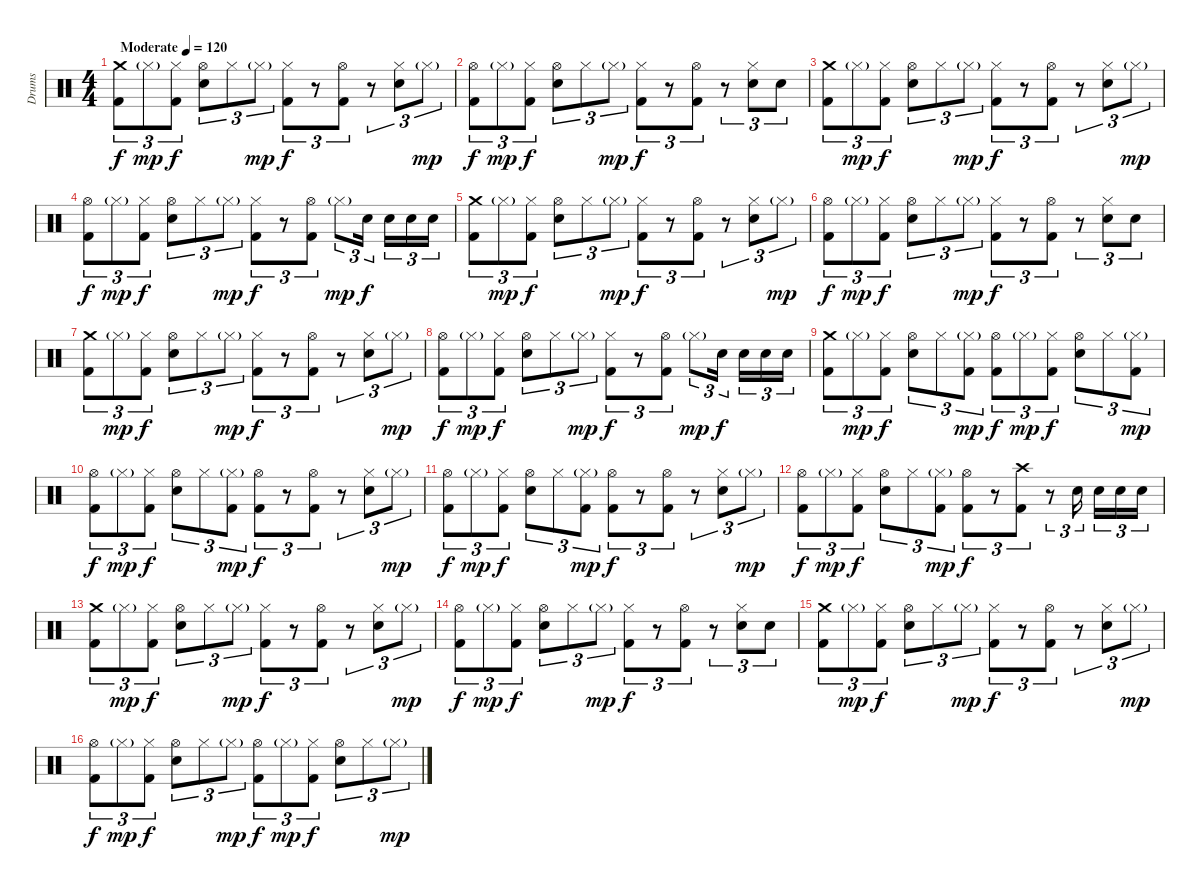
\track ("Drums" "Drums") {instrument percussion}
\staff {score}
\articulation defaults
\ts (4 4)
\tempo (120 "Moderate")
\clef neutral
\ks c
("Crash medium (hit)" "Kick (hit) 2").8{tu (3 2) dy f} "Hi-Hat (closed)"{g}.8{tu (3 2) dy mp} ("Hi-Hat (closed)" "Kick (hit) 2").8{tu (3 2) dy f} ("Hi-Hat (open)" "Electric Snare (hit)").8{tu (3 2)} "Hi-Hat (closed)".8{tu (3 2)} "Hi-Hat (closed)"{g}.8{tu (3 2) dy mp} ("Hi-Hat (closed)" "Kick (hit) 2").8{tu (3 2) dy f} r.8{tu (3 2)} ("Hi-Hat (open)" "Kick (hit) 2").8{tu (3 2)} r.8{tu (3 2)} ("Hi-Hat (closed)" "Electric Snare (hit)").8{tu (3 2)} "Hi-Hat (closed)"{g}.8{tu (3 2) dy mp} |
("Hi-Hat (open)" "Kick (hit) 2").8{tu (3 2) dy f} "Hi-Hat (closed)"{g}.8{tu (3 2) dy mp} ("Hi-Hat (closed)" "Kick (hit) 2").8{tu (3 2) dy f} ("Hi-Hat (open)" "Electric Snare (hit)").8{tu (3 2)} "Hi-Hat (closed)".8{tu (3 2)} "Hi-Hat (closed)"{g}.8{tu (3 2) dy mp} ("Hi-Hat (closed)" "Kick (hit) 2").8{tu (3 2) dy f} r.8{tu (3 2)} ("Hi-Hat (open)" "Kick (hit) 2").8{tu (3 2)} r.8{tu (3 2)} ("Hi-Hat (closed)" "Electric Snare (hit)").8{tu (3 2)} "Electric Snare (hit)".8{tu (3 2)} |
("Crash medium (hit)" "Kick (hit) 2").8{tu (3 2)} "Hi-Hat (closed)"{g}.8{tu (3 2) dy mp} ("Hi-Hat (closed)" "Kick (hit) 2").8{tu (3 2) dy f} ("Hi-Hat (open)" "Electric Snare (hit)").8{tu (3 2)} "Hi-Hat (closed)".8{tu (3 2)} "Hi-Hat (closed)"{g}.8{tu (3 2) dy mp} ("Hi-Hat (closed)" "Kick (hit) 2").8{tu (3 2) dy f} r.8{tu (3 2)} ("Hi-Hat (open)" "Kick (hit) 2").8{tu (3 2)} r.8{tu (3 2)} ("Hi-Hat (closed)" "Electric Snare (hit)").8{tu (3 2)} "Hi-Hat (closed)"{g}.8{tu (3 2) dy mp} |
("Hi-Hat (open)" "Kick (hit) 2").8{tu (3 2) dy f} "Hi-Hat (closed)"{g}.8{tu (3 2) dy mp} ("Hi-Hat (closed)" "Kick (hit) 2").8{tu (3 2) dy f} ("Hi-Hat (open)" "Electric Snare (hit)").8{tu (3 2)} "Hi-Hat (closed)".8{tu (3 2)} "Hi-Hat (closed)"{g}.8{tu (3 2) dy mp} ("Hi-Hat (closed)" "Kick (hit) 2").8{tu (3 2) dy f} r.8{tu (3 2)} ("Hi-Hat (open)" "Kick (hit) 2").8{tu (3 2)} "Hi-Hat (closed)"{g}.8{tu (3 2) dy mp} "Electric Snare (hit)".16{tu (3 2) dy f beam splitsecondary} "Electric Snare (hit)".16{tu (3 2)} "Electric Snare (hit)".16{tu (3 2)} "Electric Snare (hit)".16{tu (3 2)} |
("Crash medium (hit)" "Kick (hit) 2").8{tu (3 2)} "Hi-Hat (closed)"{g}.8{tu (3 2) dy mp} ("Hi-Hat (closed)" "Kick (hit) 2").8{tu (3 2) dy f} ("Hi-Hat (open)" "Electric Snare (hit)").8{tu (3 2)} "Hi-Hat (closed)".8{tu (3 2)} "Hi-Hat (closed)"{g}.8{tu (3 2) dy mp} ("Hi-Hat (closed)" "Kick (hit) 2").8{tu (3 2) dy f} r.8{tu (3 2)} ("Hi-Hat (open)" "Kick (hit) 2").8{tu (3 2)} r.8{tu (3 2)} ("Hi-Hat (closed)" "Electric Snare (hit)").8{tu (3 2)} "Hi-Hat (closed)"{g}.8{tu (3 2) dy mp} |
("Hi-Hat (open)" "Kick (hit) 2").8{tu (3 2) dy f} "Hi-Hat (closed)"{g}.8{tu (3 2) dy mp} ("Hi-Hat (closed)" "Kick (hit) 2").8{tu (3 2) dy f} ("Hi-Hat (open)" "Electric Snare (hit)").8{tu (3 2)} "Hi-Hat (closed)".8{tu (3 2)} "Hi-Hat (closed)"{g}.8{tu (3 2) dy mp} ("Hi-Hat (closed)" "Kick (hit) 2").8{tu (3 2) dy f} r.8{tu (3 2)} ("Hi-Hat (open)" "Kick (hit) 2").8{tu (3 2)} r.8{tu (3 2)} ("Hi-Hat (closed)" "Electric Snare (hit)").8{tu (3 2)} "Electric Snare (hit)".8{tu (3 2)} |
("Crash medium (hit)" "Kick (hit) 2").8{tu (3 2)} "Hi-Hat (closed)"{g}.8{tu (3 2) dy mp} ("Hi-Hat (closed)" "Kick (hit) 2").8{tu (3 2) dy f} ("Hi-Hat (open)" "Electric Snare (hit)").8{tu (3 2)} "Hi-Hat (closed)".8{tu (3 2)} "Hi-Hat (closed)"{g}.8{tu (3 2) dy mp} ("Hi-Hat (closed)" "Kick (hit) 2").8{tu (3 2) dy f} r.8{tu (3 2)} ("Hi-Hat (open)" "Kick (hit) 2").8{tu (3 2)} r.8{tu (3 2)} ("Hi-Hat (closed)" "Electric Snare (hit)").8{tu (3 2)} "Hi-Hat (closed)"{g}.8{tu (3 2) dy mp} |
("Hi-Hat (open)" "Kick (hit) 2").8{tu (3 2) dy f} "Hi-Hat (closed)"{g}.8{tu (3 2) dy mp} ("Hi-Hat (closed)" "Kick (hit) 2").8{tu (3 2) dy f} ("Hi-Hat (open)" "Electric Snare (hit)").8{tu (3 2)} "Hi-Hat (closed)".8{tu (3 2)} "Hi-Hat (closed)"{g}.8{tu (3 2) dy mp} ("Hi-Hat (closed)" "Kick (hit) 2").8{tu (3 2) dy f} r.8{tu (3 2)} ("Hi-Hat (open)" "Kick (hit) 2").8{tu (3 2)} "Hi-Hat (closed)"{g}.8{tu (3 2) dy mp} "Electric Snare (hit)".16{tu (3 2) dy f beam splitsecondary} "Electric Snare (hit)".16{tu (3 2)} "Electric Snare (hit)".16{tu (3 2)} "Electric Snare (hit)".16{tu (3 2)} |
("Crash medium (hit)" "Kick (hit) 2").8{tu (3 2)} "Hi-Hat (closed)"{g}.8{tu (3 2) dy mp} ("Hi-Hat (closed)" "Kick (hit) 2").8{tu (3 2) dy f} ("Hi-Hat (open)" "Electric Snare (hit)").8{tu (3 2)} "Hi-Hat (closed)".8{tu (3 2)} ("Hi-Hat (closed)"{g} "Kick (hit) 2").8{tu (3 2) dy mp} ("Hi-Hat (open)" "Kick (hit) 2").8{tu (3 2) dy f} "Hi-Hat (closed)"{g}.8{tu (3 2) dy mp} ("Hi-Hat (closed)" "Kick (hit) 2").8{tu (3 2) dy f} ("Hi-Hat (open)" "Electric Snare (hit)").8{tu (3 2)} "Hi-Hat (closed)".8{tu (3 2)} ("Hi-Hat (closed)"{g} "Kick (hit) 2").8{tu (3 2) dy mp} |
("Hi-Hat (open)" "Kick (hit) 2").8{tu (3 2) dy f} "Hi-Hat (closed)"{g}.8{tu (3 2) dy mp} ("Hi-Hat (closed)" "Kick (hit) 2").8{tu (3 2) dy f} ("Hi-Hat (open)" "Electric Snare (hit)").8{tu (3 2)} "Hi-Hat (closed)".8{tu (3 2)} ("Hi-Hat (closed)"{g} "Kick (hit) 2").8{tu (3 2) dy mp} ("Hi-Hat (open)" "Kick (hit) 2").8{tu (3 2) dy f} r.8{tu (3 2)} ("Hi-Hat (open)" "Kick (hit) 2").8{tu (3 2)} r.8{tu (3 2)} ("Hi-Hat (closed)" "Electric Snare (hit)").8{tu (3 2)} "Hi-Hat (closed)"{g}.8{tu (3 2) dy mp} |
("Hi-Hat (open)" "Kick (hit) 2").8{tu (3 2) dy f} "Hi-Hat (closed)"{g}.8{tu (3 2) dy mp} ("Hi-Hat (closed)" "Kick (hit) 2").8{tu (3 2) dy f} ("Hi-Hat (open)" "Electric Snare (hit)").8{tu (3 2)} "Hi-Hat (closed)".8{tu (3 2)} ("Hi-Hat (closed)"{g} "Kick (hit) 2").8{tu (3 2) dy mp} ("Hi-Hat (open)" "Kick (hit) 2").8{tu (3 2) dy f} r.8{tu (3 2)} ("Hi-Hat (open)" "Kick (hit) 2").8{tu (3 2)} r.8{tu (3 2)} ("Hi-Hat (closed)" "Electric Snare (hit)").8{tu (3 2)} "Hi-Hat (closed)"{g}.8{tu (3 2) dy mp} |
("Hi-Hat (open)" "Kick (hit) 2").8{tu (3 2) dy f} "Hi-Hat (closed)"{g}.8{tu (3 2) dy mp} ("Hi-Hat (closed)" "Kick (hit) 2").8{tu (3 2) dy f} ("Hi-Hat (open)" "Electric Snare (hit)").8{tu (3 2)} "Hi-Hat (closed)".8{tu (3 2)} ("Hi-Hat (closed)"{g} "Kick (hit) 2").8{tu (3 2) dy mp} ("Hi-Hat (open)" "Kick (hit) 2").8{tu (3 2) dy f} r.8{tu (3 2)} ("Crash high (hit)" "Kick (hit) 2").8{tu (3 2)} r.8{tu (3 2)} "Electric Snare (hit)".16{tu (3 2) beam splitsecondary} "Electric Snare (hit)".16{tu (3 2)} "Electric Snare (hit)".16{tu (3 2)} "Electric Snare (hit)".16{tu (3 2)} |
("Crash medium (hit)" "Kick (hit) 2").8{tu (3 2)} "Hi-Hat (closed)"{g}.8{tu (3 2) dy mp} ("Hi-Hat (closed)" "Kick (hit) 2").8{tu (3 2) dy f} ("Hi-Hat (open)" "Electric Snare (hit)").8{tu (3 2)} "Hi-Hat (closed)".8{tu (3 2)} "Hi-Hat (closed)"{g}.8{tu (3 2) dy mp} ("Hi-Hat (closed)" "Kick (hit) 2").8{tu (3 2) dy f} r.8{tu (3 2)} ("Hi-Hat (open)" "Kick (hit) 2").8{tu (3 2)} r.8{tu (3 2)} ("Hi-Hat (closed)" "Electric Snare (hit)").8{tu (3 2)} "Hi-Hat (closed)"{g}.8{tu (3 2) dy mp} |
("Hi-Hat (open)" "Kick (hit) 2").8{tu (3 2) dy f} "Hi-Hat (closed)"{g}.8{tu (3 2) dy mp} ("Hi-Hat (closed)" "Kick (hit) 2").8{tu (3 2) dy f} ("Hi-Hat (open)" "Electric Snare (hit)").8{tu (3 2)} "Hi-Hat (closed)".8{tu (3 2)} "Hi-Hat (closed)"{g}.8{tu (3 2) dy mp} ("Hi-Hat (closed)" "Kick (hit) 2").8{tu (3 2) dy f} r.8{tu (3 2)} ("Hi-Hat (open)" "Kick (hit) 2").8{tu (3 2)} r.8{tu (3 2)} ("Hi-Hat (closed)" "Electric Snare (hit)").8{tu (3 2)} "Electric Snare (hit)".8{tu (3 2)} |
("Crash medium (hit)" "Kick (hit) 2").8{tu (3 2)} "Hi-Hat (closed)"{g}.8{tu (3 2) dy mp} ("Hi-Hat (closed)" "Kick (hit) 2").8{tu (3 2) dy f} ("Hi-Hat (open)" "Electric Snare (hit)").8{tu (3 2)} "Hi-Hat (closed)".8{tu (3 2)} "Hi-Hat (closed)"{g}.8{tu (3 2) dy mp} ("Hi-Hat (closed)" "Kick (hit) 2").8{tu (3 2) dy f} r.8{tu (3 2)} ("Hi-Hat (open)" "Kick (hit) 2").8{tu (3 2)} r.8{tu (3 2)} ("Hi-Hat (closed)" "Electric Snare (hit)").8{tu (3 2)} "Hi-Hat (closed)"{g}.8{tu (3 2) dy mp} |
("Hi-Hat (open)" "Kick (hit) 2").8{tu (3 2) dy f} "Hi-Hat (closed)"{g}.8{tu (3 2) dy mp} ("Hi-Hat (closed)" "Kick (hit) 2").8{tu (3 2) dy f} ("Hi-Hat (open)" "Electric Snare (hit)").8{tu (3 2)} "Hi-Hat (closed)".8{tu (3 2)} "Hi-Hat (closed)"{g}.8{tu (3 2) dy mp} ("Hi-Hat (open)" "Kick (hit) 2").8{tu (3 2) dy f} "Hi-Hat (closed)"{g}.8{tu (3 2) dy mp} ("Hi-Hat (closed)" "Kick (hit) 2").8{tu (3 2) dy f} ("Hi-Hat (open)" "Electric Snare (hit)").8{tu (3 2)} "Hi-Hat (closed)".8{tu (3 2)} "Hi-Hat (closed)"{g}.8{tu (3 2) dy mp}
